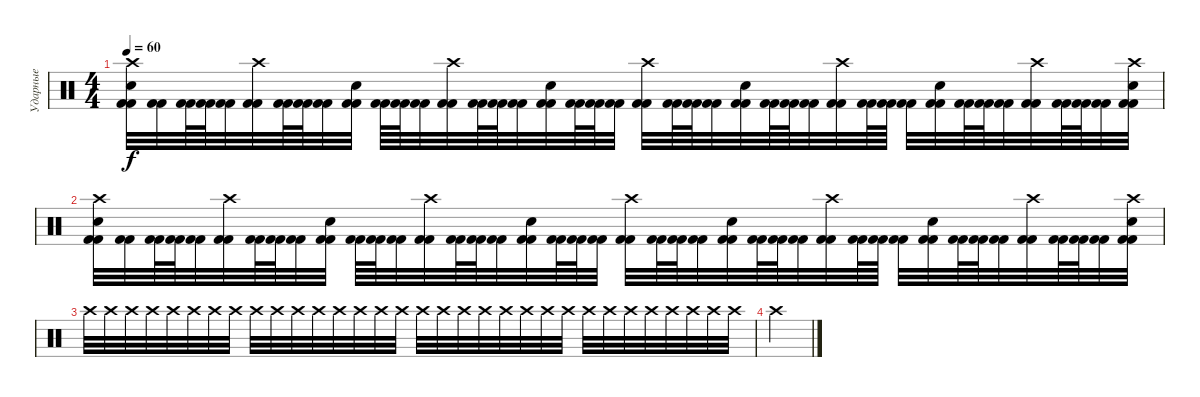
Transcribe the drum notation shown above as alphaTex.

\track ("Ударные" "Ударные") {instrument percussion}
\staff {score}
\articulation defaults
\ts (4 4)
\tempo 60
\clef neutral
\ks c
("Kick (hit) 2" "Kick (hit) 2" "Electric Snare (hit)" "Crash high (hit)").32{dy f} ("Kick (hit) 2" "Kick (hit) 2").32 ("Kick (hit) 2" "Kick (hit) 2").64 ("Kick (hit) 2" "Kick (hit) 2").64 ("Kick (hit) 2" "Kick (hit) 2").32 ("Kick (hit) 2" "Kick (hit) 2" "Crash high (hit)").32 ("Kick (hit) 2" "Kick (hit) 2").64 ("Kick (hit) 2" "Kick (hit) 2").64 ("Kick (hit) 2" "Kick (hit) 2").32 ("Kick (hit) 2" "Kick (hit) 2" "Electric Snare (hit)").32 ("Kick (hit) 2" "Kick (hit) 2").64 ("Kick (hit) 2" "Kick (hit) 2").64 ("Kick (hit) 2" "Kick (hit) 2").32 ("Kick (hit) 2" "Kick (hit) 2" "Crash high (hit)").32 ("Kick (hit) 2" "Kick (hit) 2").64 ("Kick (hit) 2" "Kick (hit) 2").64 ("Kick (hit) 2" "Kick (hit) 2").32 ("Kick (hit) 2" "Kick (hit) 2" "Electric Snare (hit)").32 ("Kick (hit) 2" "Kick (hit) 2").64 ("Kick (hit) 2" "Kick (hit) 2").64 ("Kick (hit) 2" "Kick (hit) 2").32 ("Kick (hit) 2" "Kick (hit) 2" "Crash high (hit)").32 ("Kick (hit) 2" "Kick (hit) 2").64 ("Kick (hit) 2" "Kick (hit) 2").64 ("Kick (hit) 2" "Kick (hit) 2").32 ("Kick (hit) 2" "Kick (hit) 2" "Electric Snare (hit)").32 ("Kick (hit) 2" "Kick (hit) 2").64 ("Kick (hit) 2" "Kick (hit) 2").64 ("Kick (hit) 2" "Kick (hit) 2").32 ("Kick (hit) 2" "Kick (hit) 2" "Crash high (hit)").32 ("Kick (hit) 2" "Kick (hit) 2").64 ("Kick (hit) 2" "Kick (hit) 2").64 ("Kick (hit) 2" "Kick (hit) 2").32 ("Kick (hit) 2" "Kick (hit) 2" "Electric Snare (hit)").32 ("Kick (hit) 2" "Kick (hit) 2").64 ("Kick (hit) 2" "Kick (hit) 2").64 ("Kick (hit) 2" "Kick (hit) 2").32 ("Kick (hit) 2" "Kick (hit) 2" "Crash high (hit)").32 ("Kick (hit) 2" "Kick (hit) 2").64 ("Kick (hit) 2" "Kick (hit) 2").64 ("Kick (hit) 2" "Kick (hit) 2").32 ("Kick (hit) 2" "Kick (hit) 2" "Electric Snare (hit)" "Crash high (hit)").32 |
("Kick (hit) 2" "Kick (hit) 2" "Electric Snare (hit)" "Crash high (hit)").32 ("Kick (hit) 2" "Kick (hit) 2").32 ("Kick (hit) 2" "Kick (hit) 2").64 ("Kick (hit) 2" "Kick (hit) 2").64 ("Kick (hit) 2" "Kick (hit) 2").32 ("Kick (hit) 2" "Kick (hit) 2" "Crash high (hit)").32 ("Kick (hit) 2" "Kick (hit) 2").64 ("Kick (hit) 2" "Kick (hit) 2").64 ("Kick (hit) 2" "Kick (hit) 2").32 ("Kick (hit) 2" "Kick (hit) 2" "Electric Snare (hit)").32 ("Kick (hit) 2" "Kick (hit) 2").64 ("Kick (hit) 2" "Kick (hit) 2").64 ("Kick (hit) 2" "Kick (hit) 2").32 ("Kick (hit) 2" "Kick (hit) 2" "Crash high (hit)").32 ("Kick (hit) 2" "Kick (hit) 2").64 ("Kick (hit) 2" "Kick (hit) 2").64 ("Kick (hit) 2" "Kick (hit) 2").32 ("Kick (hit) 2" "Kick (hit) 2" "Electric Snare (hit)").32 ("Kick (hit) 2" "Kick (hit) 2").64 ("Kick (hit) 2" "Kick (hit) 2").64 ("Kick (hit) 2" "Kick (hit) 2").32 ("Kick (hit) 2" "Kick (hit) 2" "Crash high (hit)").32 ("Kick (hit) 2" "Kick (hit) 2").64 ("Kick (hit) 2" "Kick (hit) 2").64 ("Kick (hit) 2" "Kick (hit) 2").32 ("Kick (hit) 2" "Kick (hit) 2" "Electric Snare (hit)").32 ("Kick (hit) 2" "Kick (hit) 2").64 ("Kick (hit) 2" "Kick (hit) 2").64 ("Kick (hit) 2" "Kick (hit) 2").32 ("Kick (hit) 2" "Kick (hit) 2" "Crash high (hit)").32 ("Kick (hit) 2" "Kick (hit) 2").64 ("Kick (hit) 2" "Kick (hit) 2").64 ("Kick (hit) 2" "Kick (hit) 2").32 ("Kick (hit) 2" "Kick (hit) 2" "Electric Snare (hit)").32 ("Kick (hit) 2" "Kick (hit) 2").64 ("Kick (hit) 2" "Kick (hit) 2").64 ("Kick (hit) 2" "Kick (hit) 2").32 ("Kick (hit) 2" "Kick (hit) 2" "Crash high (hit)").32 ("Kick (hit) 2" "Kick (hit) 2").64 ("Kick (hit) 2" "Kick (hit) 2").64 ("Kick (hit) 2" "Kick (hit) 2").32 ("Kick (hit) 2" "Kick (hit) 2" "Electric Snare (hit)" "Crash high (hit)").32 |
"Crash high (hit)".32 "Crash high (hit)".32 "Crash high (hit)".32 "Crash high (hit)".32 "Crash high (hit)".32 "Crash high (hit)".32 "Crash high (hit)".32 "Crash high (hit)".32 "Crash high (hit)".32 "Crash high (hit)".32 "Crash high (hit)".32 "Crash high (hit)".32 "Crash high (hit)".32 "Crash high (hit)".32 "Crash high (hit)".32 "Crash high (hit)".32 "Crash high (hit)".32 "Crash high (hit)".32 "Crash high (hit)".32 "Crash high (hit)".32 "Crash high (hit)".32 "Crash high (hit)".32 "Crash high (hit)".32 "Crash high (hit)".32 "Crash high (hit)".32 "Crash high (hit)".32 "Crash high (hit)".32 "Crash high (hit)".32 "Crash high (hit)".32 "Crash high (hit)".32 "Crash high (hit)".32 "Crash high (hit)".32 |
"Crash high (hit)".4
